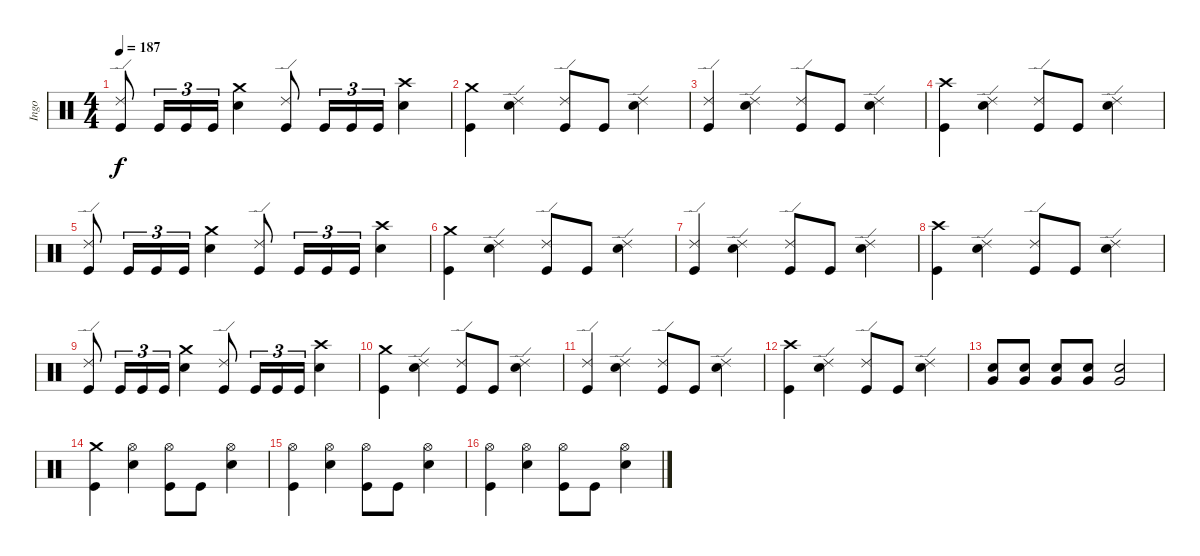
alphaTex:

\track ("Ingo" "Ingo") {instrument percussion}
\staff {score}
\articulation defaults
\ts (4 4)
\tempo 187
\clef neutral
\ks c
("Ride (edge) 2" "Kick (hit)").8{dy f} "Kick (hit)".16{tu (3 2)} "Kick (hit)".16{tu (3 2)} "Kick (hit)".16{tu (3 2)} ("Crash medium (hit)" "Snare (hit) 2").4 ("Ride (edge) 2" "Kick (hit)").8 "Kick (hit)".16{tu (3 2)} "Kick (hit)".16{tu (3 2)} "Kick (hit)".16{tu (3 2)} ("Crash high (hit)" "Snare (hit) 2").4 |
("Crash medium (hit)" "Kick (hit)").4 ("Ride (edge) 2" "Snare (hit) 2").4 ("Ride (edge) 2" "Kick (hit)").8 "Kick (hit)".8 ("Ride (edge) 2" "Snare (hit) 2").4 |
("Ride (edge) 2" "Kick (hit)").4 ("Ride (edge) 2" "Snare (hit) 2").4 ("Ride (edge) 2" "Kick (hit)").8 "Kick (hit)".8 ("Ride (edge) 2" "Snare (hit) 2").4 |
("Crash high (hit)" "Kick (hit)").4 ("Ride (edge) 2" "Snare (hit) 2").4 ("Ride (edge) 2" "Kick (hit)").8 "Kick (hit)".8 ("Ride (edge) 2" "Snare (hit) 2").4 |
("Ride (edge) 2" "Kick (hit)").8 "Kick (hit)".16{tu (3 2)} "Kick (hit)".16{tu (3 2)} "Kick (hit)".16{tu (3 2)} ("Crash medium (hit)" "Snare (hit) 2").4 ("Ride (edge) 2" "Kick (hit)").8 "Kick (hit)".16{tu (3 2)} "Kick (hit)".16{tu (3 2)} "Kick (hit)".16{tu (3 2)} ("Crash high (hit)" "Snare (hit) 2").4 |
("Crash medium (hit)" "Kick (hit)").4 ("Ride (edge) 2" "Snare (hit) 2").4 ("Ride (edge) 2" "Kick (hit)").8 "Kick (hit)".8 ("Ride (edge) 2" "Snare (hit) 2").4 |
("Ride (edge) 2" "Kick (hit)").4 ("Ride (edge) 2" "Snare (hit) 2").4 ("Ride (edge) 2" "Kick (hit)").8 "Kick (hit)".8 ("Ride (edge) 2" "Snare (hit) 2").4 |
("Crash high (hit)" "Kick (hit)").4 ("Ride (edge) 2" "Snare (hit) 2").4 ("Ride (edge) 2" "Kick (hit)").8 "Kick (hit)".8 ("Ride (edge) 2" "Snare (hit) 2").4 |
("Ride (edge) 2" "Kick (hit)").8 "Kick (hit)".16{tu (3 2)} "Kick (hit)".16{tu (3 2)} "Kick (hit)".16{tu (3 2)} ("Crash medium (hit)" "Snare (hit) 2").4 ("Ride (edge) 2" "Kick (hit)").8 "Kick (hit)".16{tu (3 2)} "Kick (hit)".16{tu (3 2)} "Kick (hit)".16{tu (3 2)} ("Crash high (hit)" "Snare (hit) 2").4 |
("Crash medium (hit)" "Kick (hit)").4 ("Ride (edge) 2" "Snare (hit) 2").4 ("Ride (edge) 2" "Kick (hit)").8 "Kick (hit)".8 ("Ride (edge) 2" "Snare (hit) 2").4 |
("Ride (edge) 2" "Kick (hit)").4 ("Ride (edge) 2" "Snare (hit) 2").4 ("Ride (edge) 2" "Kick (hit)").8 "Kick (hit)".8 ("Ride (edge) 2" "Snare (hit) 2").4 |
("Crash high (hit)" "Kick (hit)").4 ("Ride (edge) 2" "Snare (hit) 2").4 ("Ride (edge) 2" "Kick (hit)").8 "Kick (hit)".8 ("Ride (edge) 2" "Snare (hit) 2").4 |
("Very Low Tom (hit)" "Snare (hit) 2").8 ("Very Low Tom (hit)" "Snare (hit) 2").8 ("Very Low Tom (hit)" "Snare (hit) 2").8 ("Very Low Tom (hit)" "Snare (hit) 2").8 ("Very Low Tom (hit)" "Snare (hit) 2").2 |
("Crash medium (hit)" "Kick (hit)").4 ("Hi-Hat (open)" "Snare (hit) 2").4 ("Hi-Hat (open)" "Kick (hit)").8 "Kick (hit)".8 ("Hi-Hat (open)" "Snare (hit) 2").4 |
("Hi-Hat (open)" "Kick (hit)").4 ("Hi-Hat (open)" "Snare (hit) 2").4 ("Hi-Hat (open)" "Kick (hit)").8 "Kick (hit)".8 ("Hi-Hat (open)" "Snare (hit) 2").4 |
("Hi-Hat (open)" "Kick (hit)").4 ("Hi-Hat (open)" "Snare (hit) 2").4 ("Hi-Hat (open)" "Kick (hit)").8 "Kick (hit)".8 ("Hi-Hat (open)" "Snare (hit) 2").4
